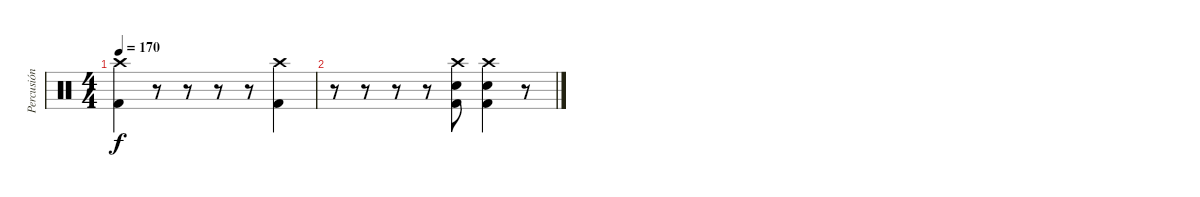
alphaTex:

\track ("Percusión" "Percusión") {instrument percussion}
\staff {score}
\articulation defaults
\ts (4 4)
\tempo 170
\clef neutral
\ks c
("Crash high (hit)" "Kick (hit) 2").4{dy f} r.8 r.8 r.8 r.8 ("Crash high (hit)" "Kick (hit) 2").4 |
r.8 r.8 r.8 r.8 ("Crash high (hit)" "Electric Snare (hit)" "Kick (hit) 2").8 ("Crash high (hit)" "Electric Snare (hit)" "Kick (hit) 2").4 r.8
